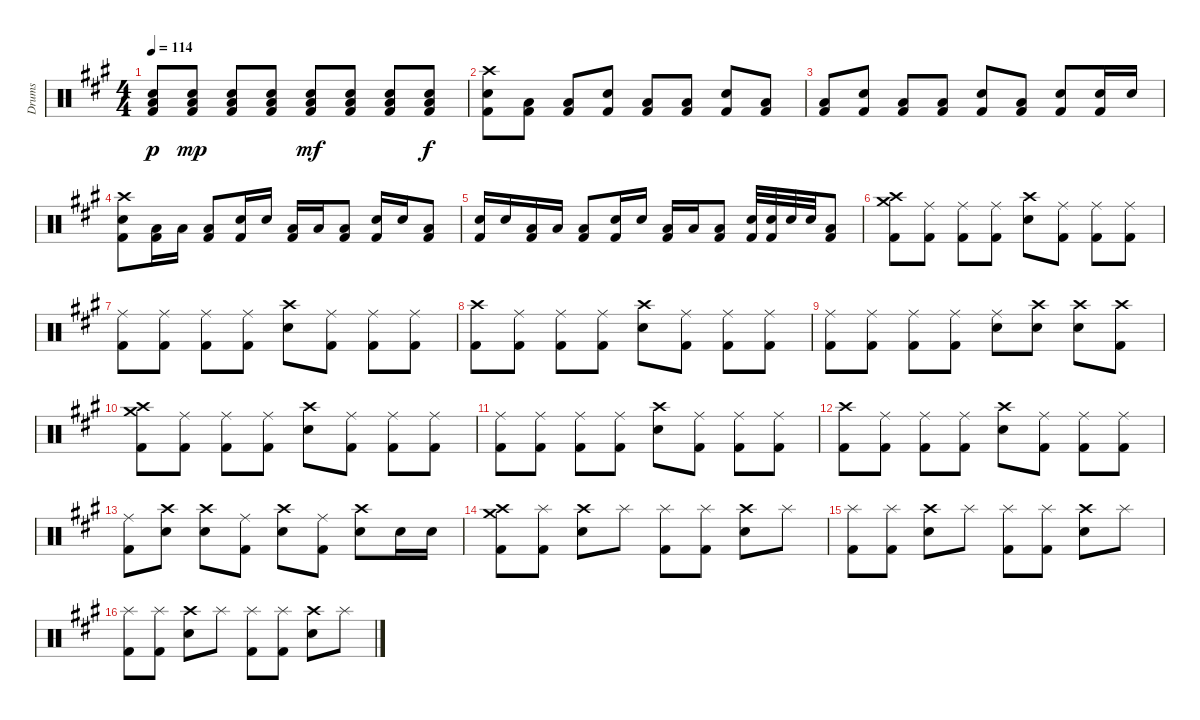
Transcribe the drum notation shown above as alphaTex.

\track ("Drums" "Drums") {instrument percussion}
\staff {score}
\articulation defaults
\ts (4 4)
\tempo 114
\clef neutral
\ks a
("Low Floor Tom (hit)" "Snare (hit) 2" "Kick (hit) 2").8{dy p} ("Low Floor Tom (hit)" "Snare (hit) 2" "Kick (hit) 2").8{dy mp} ("Low Floor Tom (hit)" "Snare (hit) 2" "Kick (hit) 2").8 ("Low Floor Tom (hit)" "Snare (hit) 2" "Kick (hit) 2").8 ("Low Floor Tom (hit)" "Snare (hit) 2" "Kick (hit) 2").8{dy mf} ("Low Floor Tom (hit)" "Snare (hit) 2" "Kick (hit) 2").8 ("Low Floor Tom (hit)" "Snare (hit) 2" "Kick (hit) 2").8 ("Low Floor Tom (hit)" "Snare (hit) 2" "Kick (hit) 2").8{dy f} |
("Crash high (hit)" "Snare (hit) 2" "Kick (hit) 2").8 ("Low Floor Tom (hit)" "Kick (hit) 2").8 ("Low Floor Tom (hit)" "Kick (hit) 2").8 ("Snare (hit) 2" "Kick (hit) 2").8 ("Low Floor Tom (hit)" "Kick (hit) 2").8 ("Low Floor Tom (hit)" "Kick (hit) 2").8 ("Snare (hit) 2" "Kick (hit) 2").8 ("Low Floor Tom (hit)" "Kick (hit) 2").8 |
("Low Floor Tom (hit)" "Kick (hit) 2").8 ("Snare (hit) 2" "Kick (hit) 2").8 ("Low Floor Tom (hit)" "Kick (hit) 2").8 ("Low Floor Tom (hit)" "Kick (hit) 2").8 ("Snare (hit) 2" "Kick (hit) 2").8 ("Low Floor Tom (hit)" "Kick (hit) 2").8 ("Snare (hit) 2" "Kick (hit) 2").8 ("Snare (hit) 2" "Kick (hit) 2").16 "Snare (hit) 2".16 |
("Crash high (hit)" "Snare (hit) 2" "Kick (hit) 2").8 ("Low Floor Tom (hit)" "Kick (hit) 2").16 "Low Floor Tom (hit)".16 ("Low Floor Tom (hit)" "Kick (hit) 2").8 ("Snare (hit) 2" "Kick (hit) 2").16 "Snare (hit) 2".16 ("Low Floor Tom (hit)" "Kick (hit) 2").16 "Low Floor Tom (hit)".16 ("Low Floor Tom (hit)" "Kick (hit) 2").8 ("Snare (hit) 2" "Kick (hit) 2").16 "Snare (hit) 2".16 ("Low Floor Tom (hit)" "Kick (hit) 2").8 |
("Snare (hit) 2" "Kick (hit) 2").16 "Snare (hit) 2".16 ("Low Floor Tom (hit)" "Kick (hit) 2").16 "Low Floor Tom (hit)".16 ("Low Floor Tom (hit)" "Kick (hit) 2").8 ("Snare (hit) 2" "Kick (hit) 2").16 "Snare (hit) 2".16 ("Low Floor Tom (hit)" "Kick (hit) 2").16 "Low Floor Tom (hit)".16 ("Low Floor Tom (hit)" "Kick (hit) 2").8 ("Snare (hit) 2" "Kick (hit) 2").32 ("Snare (hit) 2" "Kick (hit) 2").32 "Snare (hit) 2".32 "Snare (hit) 2".32 ("Low Floor Tom (hit)" "Kick (hit) 2").8 |
("Crash high (hit)" "Crash medium (hit)" "Kick (hit) 2").8 ("Ride (middle)" "Kick (hit) 2").8 ("Ride (middle)" "Kick (hit) 2").8 ("Ride (middle)" "Kick (hit) 2").8 ("Crash high (hit)" "Snare (hit) 2").8 ("Ride (middle)" "Kick (hit) 2").8 ("Ride (middle)" "Kick (hit) 2").8 ("Ride (middle)" "Kick (hit) 2").8 |
("Ride (middle)" "Kick (hit) 2").8 ("Ride (middle)" "Kick (hit) 2").8 ("Ride (middle)" "Kick (hit) 2").8 ("Ride (middle)" "Kick (hit) 2").8 ("Crash high (hit)" "Snare (hit) 2").8 ("Ride (middle)" "Kick (hit) 2").8 ("Ride (middle)" "Kick (hit) 2").8 ("Ride (middle)" "Kick (hit) 2").8 |
("Crash high (hit)" "Kick (hit) 2").8 ("Ride (middle)" "Kick (hit) 2").8 ("Ride (middle)" "Kick (hit) 2").8 ("Ride (middle)" "Kick (hit) 2").8 ("Crash high (hit)" "Snare (hit) 2").8 ("Ride (middle)" "Kick (hit) 2").8 ("Ride (middle)" "Kick (hit) 2").8 ("Ride (middle)" "Kick (hit) 2").8 |
("Ride (middle)" "Kick (hit) 2").8 ("Ride (middle)" "Kick (hit) 2").8 ("Ride (middle)" "Kick (hit) 2").8 ("Ride (middle)" "Kick (hit) 2").8 ("Ride (middle)" "Snare (hit) 2").8 ("Crash high (hit)" "Snare (hit) 2").8 ("Crash high (hit)" "Snare (hit) 2").8 ("Crash high (hit)" "Kick (hit) 2").8 |
("Crash high (hit)" "Crash medium (hit)" "Kick (hit) 2").8 ("Ride (middle)" "Kick (hit) 2").8 ("Ride (middle)" "Kick (hit) 2").8 ("Ride (middle)" "Kick (hit) 2").8 ("Crash high (hit)" "Snare (hit) 2").8 ("Ride (middle)" "Kick (hit) 2").8 ("Ride (middle)" "Kick (hit) 2").8 ("Ride (middle)" "Kick (hit) 2").8 |
("Ride (middle)" "Kick (hit) 2").8 ("Ride (middle)" "Kick (hit) 2").8 ("Ride (middle)" "Kick (hit) 2").8 ("Ride (middle)" "Kick (hit) 2").8 ("Crash high (hit)" "Snare (hit) 2").8 ("Ride (middle)" "Kick (hit) 2").8 ("Ride (middle)" "Kick (hit) 2").8 ("Ride (middle)" "Kick (hit) 2").8 |
("Crash high (hit)" "Kick (hit) 2").8 ("Ride (middle)" "Kick (hit) 2").8 ("Ride (middle)" "Kick (hit) 2").8 ("Ride (middle)" "Kick (hit) 2").8 ("Crash high (hit)" "Snare (hit) 2").8 ("Ride (middle)" "Kick (hit) 2").8 ("Ride (middle)" "Kick (hit) 2").8 ("Ride (middle)" "Kick (hit) 2").8 |
("Ride (middle)" "Kick (hit) 2").8 ("Crash high (hit)" "Snare (hit) 2").8 ("Crash high (hit)" "Snare (hit) 2").8 ("Ride (middle)" "Kick (hit) 2").8 ("Crash high (hit)" "Snare (hit) 2").8 ("Ride (middle)" "Kick (hit) 2").8 ("Crash high (hit)" "Snare (hit) 2").8 "Snare (hit) 2".16 "Snare (hit) 2".16 |
("Crash high (hit)" "Crash medium (hit)" "Kick (hit) 2").8 ("Splash (hit)" "Kick (hit) 2").8 ("Crash high (hit)" "Snare (hit) 2").8 "Splash (hit)".8 ("Splash (hit)" "Kick (hit) 2").8 ("Splash (hit)" "Kick (hit) 2").8 ("Crash high (hit)" "Snare (hit) 2").8 "Splash (hit)".8 |
("Splash (hit)" "Kick (hit) 2").8 ("Splash (hit)" "Kick (hit) 2").8 ("Crash high (hit)" "Snare (hit) 2").8 "Splash (hit)".8 ("Splash (hit)" "Kick (hit) 2").8 ("Splash (hit)" "Kick (hit) 2").8 ("Crash high (hit)" "Snare (hit) 2").8 "Splash (hit)".8 |
("Splash (hit)" "Kick (hit) 2").8 ("Splash (hit)" "Kick (hit) 2").8 ("Crash high (hit)" "Snare (hit) 2").8 "Splash (hit)".8 ("Splash (hit)" "Kick (hit) 2").8 ("Splash (hit)" "Kick (hit) 2").8 ("Crash high (hit)" "Snare (hit) 2").8 "Splash (hit)".8
